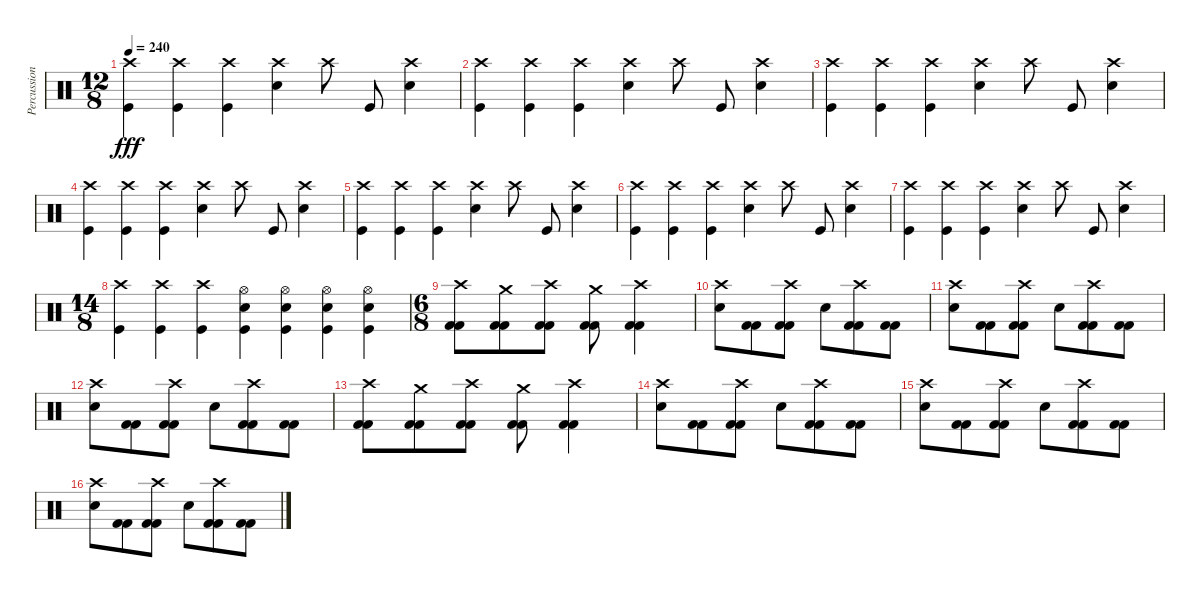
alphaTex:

\track ("Percussion" "Percussion") {instrument percussion}
\staff {score}
\articulation defaults
\ts (12 8)
\tempo 240
\clef neutral
\ks c
("Crash high (hit)" "Kick (hit)").4{dy fff} ("Crash high (hit)" "Kick (hit)").4 ("Crash high (hit)" "Kick (hit)").4 ("Crash high (hit)" "Electric Snare (hit)").4 "Crash high (hit)".8 "Kick (hit)".8 ("Crash high (hit)" "Electric Snare (hit)").4 |
("Crash high (hit)" "Kick (hit)").4 ("Crash high (hit)" "Kick (hit)").4 ("Crash high (hit)" "Kick (hit)").4 ("Crash high (hit)" "Electric Snare (hit)").4 "Crash high (hit)".8 "Kick (hit)".8 ("Crash high (hit)" "Electric Snare (hit)").4 |
("Crash high (hit)" "Kick (hit)").4 ("Crash high (hit)" "Kick (hit)").4 ("Crash high (hit)" "Kick (hit)").4 ("Crash high (hit)" "Electric Snare (hit)").4 "Crash high (hit)".8 "Kick (hit)".8 ("Crash high (hit)" "Electric Snare (hit)").4 |
("Crash high (hit)" "Kick (hit)").4 ("Crash high (hit)" "Kick (hit)").4 ("Crash high (hit)" "Kick (hit)").4 ("Crash high (hit)" "Electric Snare (hit)").4 "Crash high (hit)".8 "Kick (hit)".8 ("Crash high (hit)" "Electric Snare (hit)").4 |
("Crash high (hit)" "Kick (hit)").4 ("Crash high (hit)" "Kick (hit)").4 ("Crash high (hit)" "Kick (hit)").4 ("Crash high (hit)" "Electric Snare (hit)").4 "Crash high (hit)".8 "Kick (hit)".8 ("Crash high (hit)" "Electric Snare (hit)").4 |
("Crash high (hit)" "Kick (hit)").4 ("Crash high (hit)" "Kick (hit)").4 ("Crash high (hit)" "Kick (hit)").4 ("Crash high (hit)" "Electric Snare (hit)").4 "Crash high (hit)".8 "Kick (hit)".8 ("Crash high (hit)" "Electric Snare (hit)").4 |
("Crash high (hit)" "Kick (hit)").4 ("Crash high (hit)" "Kick (hit)").4 ("Crash high (hit)" "Kick (hit)").4 ("Crash high (hit)" "Electric Snare (hit)").4 "Crash high (hit)".8 "Kick (hit)".8 ("Crash high (hit)" "Electric Snare (hit)").4 |
\ts (14 8)
("Crash high (hit)" "Kick (hit)").4 ("Crash high (hit)" "Kick (hit)").4 ("Crash high (hit)" "Kick (hit)").4 ("Electric Snare (hit)" "Hi-Hat (open)" "Kick (hit)").4 ("Electric Snare (hit)" "Hi-Hat (open)" "Kick (hit)").4 ("Electric Snare (hit)" "Hi-Hat (open)" "Kick (hit)").4 ("Electric Snare (hit)" "Hi-Hat (open)" "Kick (hit)").4 |
\ts (6 8)
("Crash high (hit)" "Kick (hit) 2" "Kick (hit) 2").8 ("Crash medium (hit)" "Kick (hit) 2" "Kick (hit) 2").8 ("Crash high (hit)" "Kick (hit) 2" "Kick (hit) 2").8 ("Crash medium (hit)" "Kick (hit) 2" "Kick (hit) 2").8 ("Crash high (hit)" "Kick (hit) 2" "Kick (hit) 2").4 |
("Crash high (hit)" "Snare (hit) 2").8 ("Kick (hit) 2" "Kick (hit) 2").8 ("Crash high (hit)" "Kick (hit) 2" "Kick (hit) 2").8 "Snare (hit) 2".8 ("Crash high (hit)" "Kick (hit) 2" "Kick (hit) 2").8 ("Kick (hit) 2" "Kick (hit) 2").8 |
("Crash high (hit)" "Snare (hit) 2").8 ("Kick (hit) 2" "Kick (hit) 2").8 ("Crash high (hit)" "Kick (hit) 2" "Kick (hit) 2").8 "Snare (hit) 2".8 ("Crash high (hit)" "Kick (hit) 2" "Kick (hit) 2").8 ("Kick (hit) 2" "Kick (hit) 2").8 |
("Crash high (hit)" "Snare (hit) 2").8 ("Kick (hit) 2" "Kick (hit) 2").8 ("Crash high (hit)" "Kick (hit) 2" "Kick (hit) 2").8 "Snare (hit) 2".8 ("Crash high (hit)" "Kick (hit) 2" "Kick (hit) 2").8 ("Kick (hit) 2" "Kick (hit) 2").8 |
("Crash high (hit)" "Kick (hit) 2" "Kick (hit) 2").8 ("Crash medium (hit)" "Kick (hit) 2" "Kick (hit) 2").8 ("Crash high (hit)" "Kick (hit) 2" "Kick (hit) 2").8 ("Crash medium (hit)" "Kick (hit) 2" "Kick (hit) 2").8 ("Crash high (hit)" "Kick (hit) 2" "Kick (hit) 2").4 |
("Crash high (hit)" "Snare (hit) 2").8 ("Kick (hit) 2" "Kick (hit) 2").8 ("Crash high (hit)" "Kick (hit) 2" "Kick (hit) 2").8 "Snare (hit) 2".8 ("Crash high (hit)" "Kick (hit) 2" "Kick (hit) 2").8 ("Kick (hit) 2" "Kick (hit) 2").8 |
("Crash high (hit)" "Snare (hit) 2").8 ("Kick (hit) 2" "Kick (hit) 2").8 ("Crash high (hit)" "Kick (hit) 2" "Kick (hit) 2").8 "Snare (hit) 2".8 ("Crash high (hit)" "Kick (hit) 2" "Kick (hit) 2").8 ("Kick (hit) 2" "Kick (hit) 2").8 |
("Crash high (hit)" "Snare (hit) 2").8 ("Kick (hit) 2" "Kick (hit) 2").8 ("Crash high (hit)" "Kick (hit) 2" "Kick (hit) 2").8 "Snare (hit) 2".8 ("Crash high (hit)" "Kick (hit) 2" "Kick (hit) 2").8 ("Kick (hit) 2" "Kick (hit) 2").8
